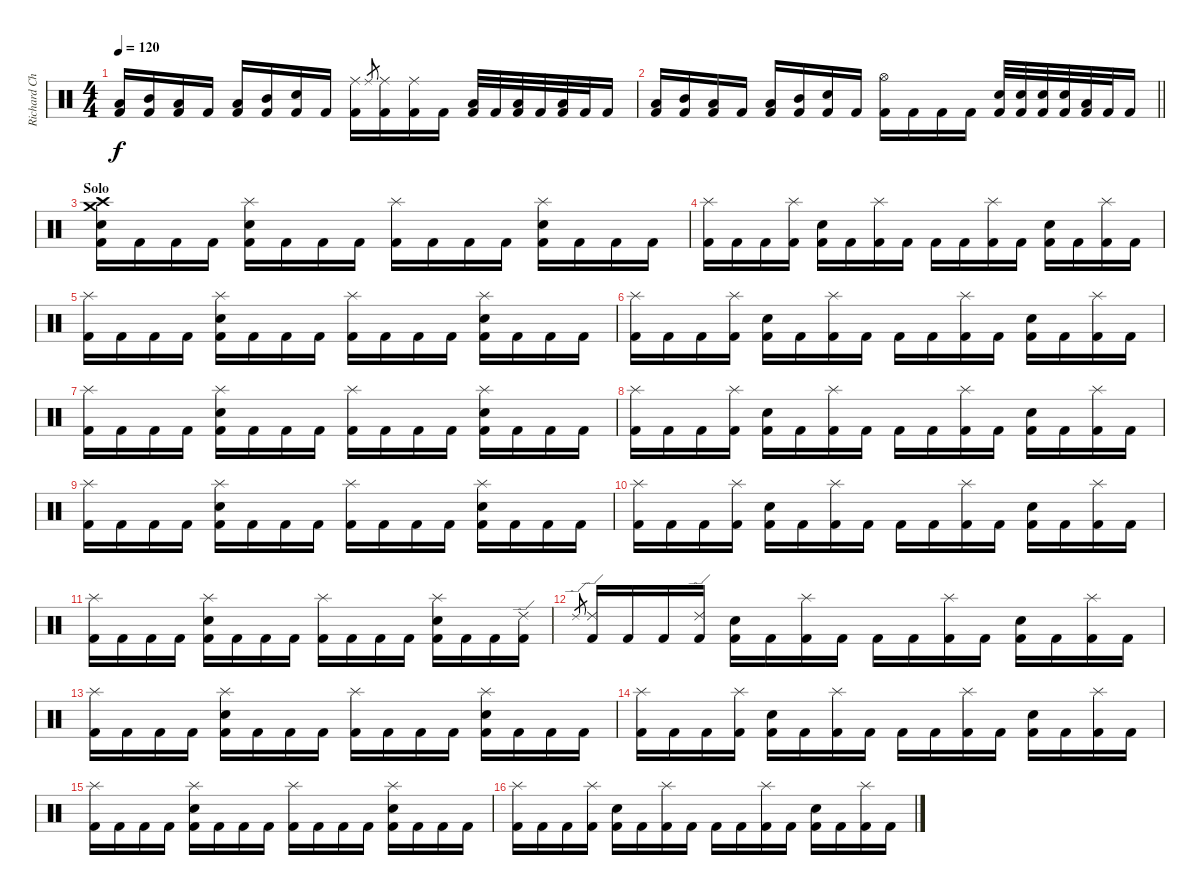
\track ("Richard Christy" "Richard Ch") {instrument percussion}
\staff {score}
\articulation defaults
\ts (4 4)
\tempo 120
\clef neutral
\ks c
("Low Tom (hit)" "Kick (hit) 2").16{dy f} ("Mid Tom (hit)" "Kick (hit) 2").16 ("Low Tom (hit)" "Kick (hit) 2").16 "Kick (hit) 2".16 ("Low Tom (hit)" "Kick (hit) 2").16 ("Mid Tom (hit)" "Kick (hit) 2").16 ("Snare (hit) 2" "Kick (hit) 2").16 "Kick (hit) 2".16 ("Ride (middle)" "Kick (hit) 2").16 "Ride (middle)".8{gr} ("Ride (middle)" "Kick (hit) 2").16 ("Ride (middle)" "Kick (hit) 2").16 "Kick (hit) 2".16 ("Low Tom (hit)" "Kick (hit) 2").32 "Kick (hit) 2".32 ("Low Tom (hit)" "Kick (hit) 2").32 "Kick (hit) 2".32 ("Low Tom (hit)" "Kick (hit) 2").32 "Kick (hit) 2".32 "Kick (hit) 2".16 |
\barLineRight lightlight
("Low Tom (hit)" "Kick (hit) 2").16 ("Mid Tom (hit)" "Kick (hit) 2").16 ("Low Tom (hit)" "Kick (hit) 2").16 "Kick (hit) 2".16 ("Low Tom (hit)" "Kick (hit) 2").16 ("Mid Tom (hit)" "Kick (hit) 2").16 ("Snare (hit) 2" "Kick (hit) 2").16 "Kick (hit) 2".16 ("Hi-Hat (open)" "Kick (hit) 2").16 "Kick (hit) 2".16 "Kick (hit) 2".16 "Kick (hit) 2".16 ("Electric Snare (hit)" "Kick (hit) 2").32 ("Electric Snare (hit)" "Kick (hit) 2").32 ("Snare (hit) 2" "Kick (hit) 2").32 ("Snare (hit) 2" "Kick (hit) 2").32 ("Low Tom (hit)" "Kick (hit) 2").32 "Kick (hit) 2".32 "Kick (hit) 2".16 |
\section ("" "Solo ")
("Crash high (hit)" "Crash medium (hit)" "Snare (hit) 2" "Kick (hit) 2").16 "Kick (hit) 2".16 "Kick (hit) 2".16 "Kick (hit) 2".16 ("Splash (hit)" "Snare (hit) 2" "Kick (hit) 2").16 "Kick (hit) 2".16 "Kick (hit) 2".16 "Kick (hit) 2".16 ("Splash (hit)" "Kick (hit) 2").16 "Kick (hit) 2".16 "Kick (hit) 2".16 "Kick (hit) 2".16 ("Splash (hit)" "Snare (hit) 2" "Kick (hit) 2").16 "Kick (hit) 2".16 "Kick (hit) 2".16 "Kick (hit) 2".16 |
("Splash (hit)" "Kick (hit) 2").16 "Kick (hit) 2".16 "Kick (hit) 2".16 ("Splash (hit)" "Kick (hit) 2").16 ("Snare (hit) 2" "Kick (hit) 2").16 "Kick (hit) 2".16 ("Splash (hit)" "Kick (hit) 2").16 "Kick (hit) 2".16 "Kick (hit) 2".16 "Kick (hit) 2".16 ("Splash (hit)" "Kick (hit) 2").16 "Kick (hit) 2".16 ("Snare (hit) 2" "Kick (hit) 2").16 "Kick (hit) 2".16 ("Splash (hit)" "Kick (hit) 2").16 "Kick (hit) 2".16 |
("Splash (hit)" "Kick (hit) 2").16 "Kick (hit) 2".16 "Kick (hit) 2".16 "Kick (hit) 2".16 ("Splash (hit)" "Snare (hit) 2" "Kick (hit) 2").16 "Kick (hit) 2".16 "Kick (hit) 2".16 "Kick (hit) 2".16 ("Splash (hit)" "Kick (hit) 2").16 "Kick (hit) 2".16 "Kick (hit) 2".16 "Kick (hit) 2".16 ("Splash (hit)" "Snare (hit) 2" "Kick (hit) 2").16 "Kick (hit) 2".16 "Kick (hit) 2".16 "Kick (hit) 2".16 |
("Splash (hit)" "Kick (hit) 2").16 "Kick (hit) 2".16 "Kick (hit) 2".16 ("Splash (hit)" "Kick (hit) 2").16 ("Snare (hit) 2" "Kick (hit) 2").16 "Kick (hit) 2".16 ("Splash (hit)" "Kick (hit) 2").16 "Kick (hit) 2".16 "Kick (hit) 2".16 "Kick (hit) 2".16 ("Splash (hit)" "Kick (hit) 2").16 "Kick (hit) 2".16 ("Snare (hit) 2" "Kick (hit) 2").16 "Kick (hit) 2".16 ("Splash (hit)" "Kick (hit) 2").16 "Kick (hit) 2".16 |
("Splash (hit)" "Kick (hit) 2").16 "Kick (hit) 2".16 "Kick (hit) 2".16 "Kick (hit) 2".16 ("Splash (hit)" "Snare (hit) 2" "Kick (hit) 2").16 "Kick (hit) 2".16 "Kick (hit) 2".16 "Kick (hit) 2".16 ("Splash (hit)" "Kick (hit) 2").16 "Kick (hit) 2".16 "Kick (hit) 2".16 "Kick (hit) 2".16 ("Splash (hit)" "Snare (hit) 2" "Kick (hit) 2").16 "Kick (hit) 2".16 "Kick (hit) 2".16 "Kick (hit) 2".16 |
("Splash (hit)" "Kick (hit) 2").16 "Kick (hit) 2".16 "Kick (hit) 2".16 ("Splash (hit)" "Kick (hit) 2").16 ("Snare (hit) 2" "Kick (hit) 2").16 "Kick (hit) 2".16 ("Splash (hit)" "Kick (hit) 2").16 "Kick (hit) 2".16 "Kick (hit) 2".16 "Kick (hit) 2".16 ("Splash (hit)" "Kick (hit) 2").16 "Kick (hit) 2".16 ("Snare (hit) 2" "Kick (hit) 2").16 "Kick (hit) 2".16 ("Splash (hit)" "Kick (hit) 2").16 "Kick (hit) 2".16 |
("Splash (hit)" "Kick (hit) 2").16 "Kick (hit) 2".16 "Kick (hit) 2".16 "Kick (hit) 2".16 ("Splash (hit)" "Snare (hit) 2" "Kick (hit) 2").16 "Kick (hit) 2".16 "Kick (hit) 2".16 "Kick (hit) 2".16 ("Splash (hit)" "Kick (hit) 2").16 "Kick (hit) 2".16 "Kick (hit) 2".16 "Kick (hit) 2".16 ("Splash (hit)" "Snare (hit) 2" "Kick (hit) 2").16 "Kick (hit) 2".16 "Kick (hit) 2".16 "Kick (hit) 2".16 |
("Splash (hit)" "Kick (hit) 2").16 "Kick (hit) 2".16 "Kick (hit) 2".16 ("Splash (hit)" "Kick (hit) 2").16 ("Snare (hit) 2" "Kick (hit) 2").16 "Kick (hit) 2".16 ("Splash (hit)" "Kick (hit) 2").16 "Kick (hit) 2".16 "Kick (hit) 2".16 "Kick (hit) 2".16 ("Splash (hit)" "Kick (hit) 2").16 "Kick (hit) 2".16 ("Snare (hit) 2" "Kick (hit) 2").16 "Kick (hit) 2".16 ("Splash (hit)" "Kick (hit) 2").16 "Kick (hit) 2".16 |
("Splash (hit)" "Kick (hit) 2").16 "Kick (hit) 2".16 "Kick (hit) 2".16 "Kick (hit) 2".16 ("Splash (hit)" "Snare (hit) 2" "Kick (hit) 2").16 "Kick (hit) 2".16 "Kick (hit) 2".16 "Kick (hit) 2".16 ("Splash (hit)" "Kick (hit) 2").16 "Kick (hit) 2".16 "Kick (hit) 2".16 "Kick (hit) 2".16 ("Splash (hit)" "Snare (hit) 2" "Kick (hit) 2").16 "Kick (hit) 2".16 "Kick (hit) 2".16 ("Ride (edge) 2" "Kick (hit) 2").16 |
"Ride (edge) 2".8{gr} ("Ride (edge) 2" "Kick (hit) 2").16 "Kick (hit) 2".16 "Kick (hit) 2".16 ("Ride (edge) 2" "Kick (hit) 2").16 ("Snare (hit) 2" "Kick (hit) 2").16 "Kick (hit) 2".16 ("Splash (hit)" "Kick (hit) 2").16 "Kick (hit) 2".16 "Kick (hit) 2".16 "Kick (hit) 2".16 ("Splash (hit)" "Kick (hit) 2").16 "Kick (hit) 2".16 ("Snare (hit) 2" "Kick (hit) 2").16 "Kick (hit) 2".16 ("Splash (hit)" "Kick (hit) 2").16 "Kick (hit) 2".16 |
("Splash (hit)" "Kick (hit) 2").16 "Kick (hit) 2".16 "Kick (hit) 2".16 "Kick (hit) 2".16 ("Splash (hit)" "Snare (hit) 2" "Kick (hit) 2").16 "Kick (hit) 2".16 "Kick (hit) 2".16 "Kick (hit) 2".16 ("Splash (hit)" "Kick (hit) 2").16 "Kick (hit) 2".16 "Kick (hit) 2".16 "Kick (hit) 2".16 ("Splash (hit)" "Snare (hit) 2" "Kick (hit) 2").16 "Kick (hit) 2".16 "Kick (hit) 2".16 "Kick (hit) 2".16 |
("Splash (hit)" "Kick (hit) 2").16 "Kick (hit) 2".16 "Kick (hit) 2".16 ("Splash (hit)" "Kick (hit) 2").16 ("Snare (hit) 2" "Kick (hit) 2").16 "Kick (hit) 2".16 ("Splash (hit)" "Kick (hit) 2").16 "Kick (hit) 2".16 "Kick (hit) 2".16 "Kick (hit) 2".16 ("Splash (hit)" "Kick (hit) 2").16 "Kick (hit) 2".16 ("Snare (hit) 2" "Kick (hit) 2").16 "Kick (hit) 2".16 ("Splash (hit)" "Kick (hit) 2").16 "Kick (hit) 2".16 |
("Splash (hit)" "Kick (hit) 2").16 "Kick (hit) 2".16 "Kick (hit) 2".16 "Kick (hit) 2".16 ("Splash (hit)" "Snare (hit) 2" "Kick (hit) 2").16 "Kick (hit) 2".16 "Kick (hit) 2".16 "Kick (hit) 2".16 ("Splash (hit)" "Kick (hit) 2").16 "Kick (hit) 2".16 "Kick (hit) 2".16 "Kick (hit) 2".16 ("Splash (hit)" "Snare (hit) 2" "Kick (hit) 2").16 "Kick (hit) 2".16 "Kick (hit) 2".16 "Kick (hit) 2".16 |
("Splash (hit)" "Kick (hit) 2").16 "Kick (hit) 2".16 "Kick (hit) 2".16 ("Splash (hit)" "Kick (hit) 2").16 ("Snare (hit) 2" "Kick (hit) 2").16 "Kick (hit) 2".16 ("Splash (hit)" "Kick (hit) 2").16 "Kick (hit) 2".16 "Kick (hit) 2".16 "Kick (hit) 2".16 ("Splash (hit)" "Kick (hit) 2").16 "Kick (hit) 2".16 ("Snare (hit) 2" "Kick (hit) 2").16 "Kick (hit) 2".16 ("Splash (hit)" "Kick (hit) 2").16 "Kick (hit) 2".16
